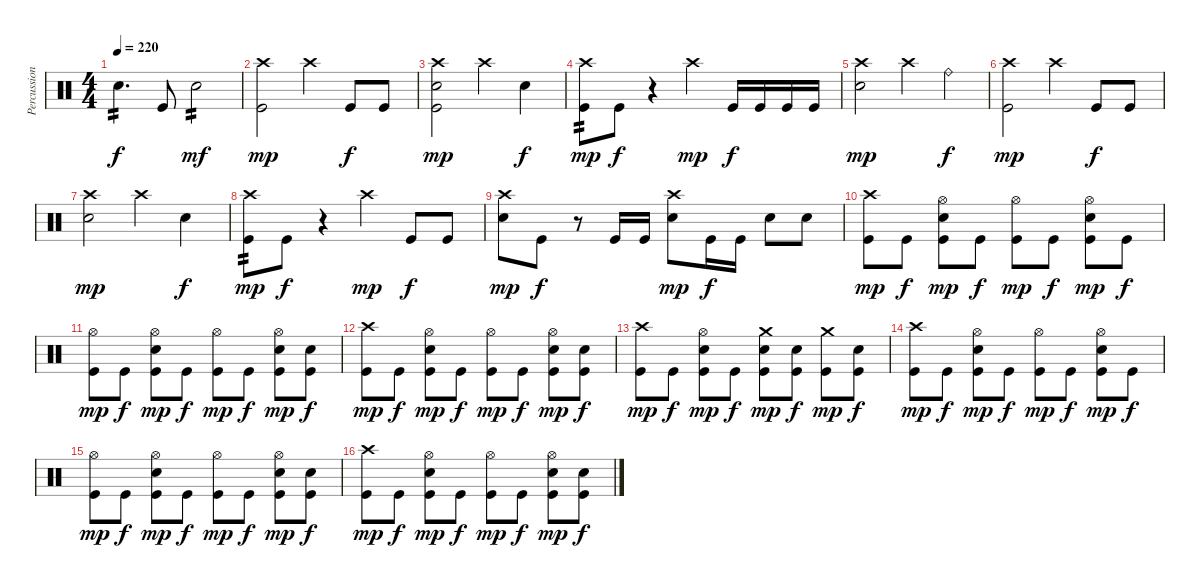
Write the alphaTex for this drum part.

\track ("Percussion" "Percussion") {instrument percussion}
\staff {score}
\articulation defaults
\ts (4 4)
\tempo 220
\clef neutral
\ks c "Electric Snare (hit)".4{d tp 2 dy f} "Kick (hit)".8 "Electric Snare (hit)".2{tp 2 dy mf}
|
("Crash high (hit)" "Kick (hit)").2{dy mp} "Crash high (hit)".4 "Kick (hit)".8{dy f} "Kick (hit)".8 |
("Crash high (hit)" "Electric Snare (hit)" "Kick (hit)").2{dy mp} "Crash high (hit)".4 "Electric Snare (hit)".4{dy f} |
("Crash high (hit)" "Kick (hit)").8{tp 2 dy mp} "Kick (hit)".8{dy f} r.4 "Crash high (hit)".4{dy mp} "Kick (hit)".16{dy f} "Kick (hit)".16 "Kick (hit)".16 "Kick (hit)".16 |
("Crash high (hit)" "Electric Snare (hit)").2{dy mp} "Crash high (hit)".4 "Ride (bell)".4{dy f} |
("Crash high (hit)" "Kick (hit)").2{dy mp} "Crash high (hit)".4 "Kick (hit)".8{dy f} "Kick (hit)".8 |
("Crash high (hit)" "Electric Snare (hit)").2{dy mp} "Crash high (hit)".4 "Electric Snare (hit)".4{dy f} |
("Crash high (hit)" "Kick (hit)").8{tp 2 dy mp} "Kick (hit)".8{dy f} r.4 "Crash high (hit)".4{dy mp} "Kick (hit)".8{dy f} "Kick (hit)".8 |
("Crash high (hit)" "Electric Snare (hit)").8{dy mp} "Kick (hit)".8{dy f} r.8 "Kick (hit)".16 "Kick (hit)".16 ("Crash high (hit)" "Electric Snare (hit)").8{dy mp} "Kick (hit)".16{dy f} "Kick (hit)".16 "Electric Snare (hit)".8 "Electric Snare (hit)".8 |
("Crash high (hit)" "Kick (hit)").8{dy mp} "Kick (hit)".8{dy f} ("Hi-Hat (open)" "Electric Snare (hit)" "Kick (hit)").8{dy mp} "Kick (hit)".8{dy f} ("Hi-Hat (open)" "Kick (hit)").8{dy mp} "Kick (hit)".8{dy f} ("Hi-Hat (open)" "Electric Snare (hit)" "Kick (hit)").8{dy mp} "Kick (hit)".8{dy f} |
("Hi-Hat (open)" "Kick (hit)").8{dy mp} "Kick (hit)".8{dy f} ("Hi-Hat (open)" "Electric Snare (hit)" "Kick (hit)").8{dy mp} "Kick (hit)".8{dy f} ("Hi-Hat (open)" "Kick (hit)").8{dy mp} "Kick (hit)".8{dy f} ("Hi-Hat (open)" "Electric Snare (hit)" "Kick (hit)").8{dy mp} ("Electric Snare (hit)" "Kick (hit)").8{dy f} |
("Crash high (hit)" "Kick (hit)").8{dy mp} "Kick (hit)".8{dy f} ("Hi-Hat (open)" "Electric Snare (hit)" "Kick (hit)").8{dy mp} "Kick (hit)".8{dy f} ("Hi-Hat (open)" "Kick (hit)").8{dy mp} "Kick (hit)".8{dy f} ("Hi-Hat (open)" "Electric Snare (hit)" "Kick (hit)").8{dy mp} ("Electric Snare (hit)" "Kick (hit)").8{dy f} |
("Crash high (hit)" "Kick (hit)").8{dy mp} "Kick (hit)".8{dy f} ("Hi-Hat (open)" "Electric Snare (hit)" "Kick (hit)").8{dy mp} "Kick (hit)".8{dy f} ("Crash medium (hit)" "Electric Snare (hit)" "Kick (hit)").8{dy mp} ("Electric Snare (hit)" "Kick (hit)").8{dy f} ("Crash medium (hit)" "Kick (hit)").8{dy mp} ("Electric Snare (hit)" "Kick (hit)").8{dy f} |
("Crash high (hit)" "Kick (hit)").8{dy mp} "Kick (hit)".8{dy f} ("Hi-Hat (open)" "Electric Snare (hit)" "Kick (hit)").8{dy mp} "Kick (hit)".8{dy f} ("Hi-Hat (open)" "Kick (hit)").8{dy mp} "Kick (hit)".8{dy f} ("Hi-Hat (open)" "Electric Snare (hit)" "Kick (hit)").8{dy mp} "Kick (hit)".8{dy f} |
("Hi-Hat (open)" "Kick (hit)").8{dy mp} "Kick (hit)".8{dy f} ("Hi-Hat (open)" "Electric Snare (hit)" "Kick (hit)").8{dy mp} "Kick (hit)".8{dy f} ("Hi-Hat (open)" "Kick (hit)").8{dy mp} "Kick (hit)".8{dy f} ("Hi-Hat (open)" "Electric Snare (hit)" "Kick (hit)").8{dy mp} ("Electric Snare (hit)" "Kick (hit)").8{dy f} |
("Crash high (hit)" "Kick (hit)").8{dy mp} "Kick (hit)".8{dy f} ("Hi-Hat (open)" "Electric Snare (hit)" "Kick (hit)").8{dy mp} "Kick (hit)".8{dy f} ("Hi-Hat (open)" "Kick (hit)").8{dy mp} "Kick (hit)".8{dy f} ("Hi-Hat (open)" "Electric Snare (hit)" "Kick (hit)").8{dy mp} ("Electric Snare (hit)" "Kick (hit)").8{dy f}
